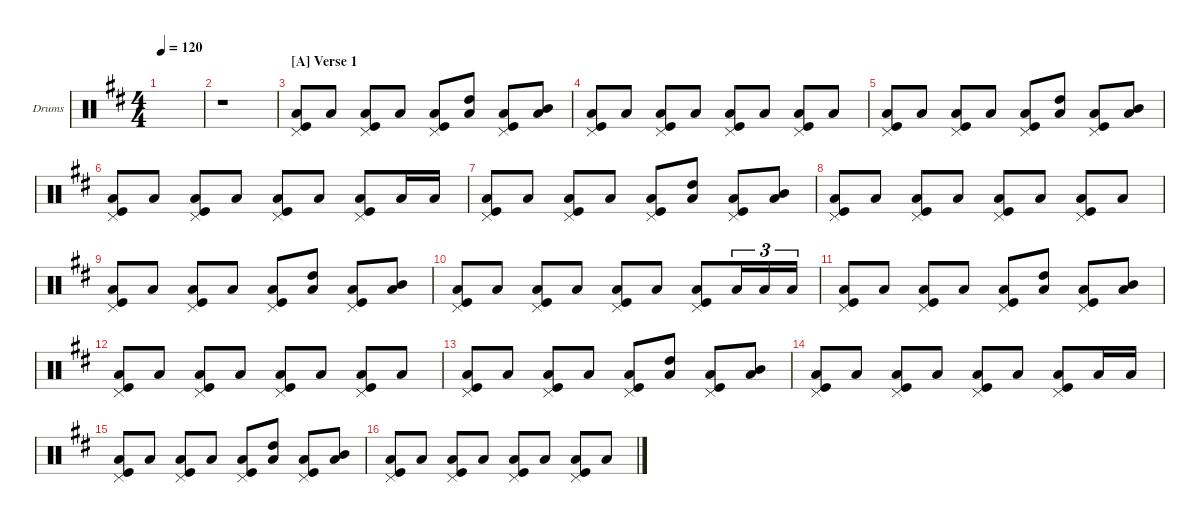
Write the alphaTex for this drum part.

\hideDynamics
\bracketExtendMode nobrackets
\firstSystemTrackNameOrientation horizontal
\otherSystemsTrackNameOrientation horizontal
\track ("Drums" "Drums") {instrument percussion}
\staff {score}
\articulation defaults
\ts (4 4)
\ac
\tempo 120
\clef neutral
\ks bminor
|
r.1 |
\section ("A" "Verse 1")
("Pedal Hi-Hat (hit)" "Kick (hit)" "Low Tom (hit)").8 "Low Tom (hit)".8 ("Pedal Hi-Hat (hit)" "Kick (hit)" "Low Tom (hit)").8 "Low Tom (hit)".8 ("Pedal Hi-Hat (hit)" "Kick (hit)" "Low Tom (hit)").8 ("Low Tom (hit)" "High Tom (hit)").8 ("Pedal Hi-Hat (hit)" "Kick (hit)" "Low Tom (hit)").8 ("Low Tom (hit)" "Mid Tom (hit)").8 |
("Pedal Hi-Hat (hit)" "Kick (hit)" "Low Tom (hit)").8 "Low Tom (hit)".8 ("Pedal Hi-Hat (hit)" "Kick (hit)" "Low Tom (hit)").8 "Low Tom (hit)".8 ("Pedal Hi-Hat (hit)" "Kick (hit)" "Low Tom (hit)").8 "Low Tom (hit)".8 ("Pedal Hi-Hat (hit)" "Kick (hit)" "Low Tom (hit)").8 "Low Tom (hit)".8 |
("Pedal Hi-Hat (hit)" "Kick (hit)" "Low Tom (hit)").8 "Low Tom (hit)".8 ("Pedal Hi-Hat (hit)" "Kick (hit)" "Low Tom (hit)").8 "Low Tom (hit)".8 ("Pedal Hi-Hat (hit)" "Kick (hit)" "Low Tom (hit)").8 ("Low Tom (hit)" "High Tom (hit)").8 ("Pedal Hi-Hat (hit)" "Kick (hit)" "Low Tom (hit)").8 ("Low Tom (hit)" "Mid Tom (hit)").8 |
("Kick (hit)" "Pedal Hi-Hat (hit)" "Low Tom (hit)").8 "Low Tom (hit)".8 ("Kick (hit)" "Pedal Hi-Hat (hit)" "Low Tom (hit)").8 "Low Tom (hit)".8 ("Kick (hit)" "Pedal Hi-Hat (hit)" "Low Tom (hit)").8 "Low Tom (hit)".8 ("Kick (hit)" "Pedal Hi-Hat (hit)" "Low Tom (hit)").8 "Low Tom (hit)".16 "Low Tom (hit)".16 |
("Pedal Hi-Hat (hit)" "Kick (hit)" "Low Tom (hit)").8 "Low Tom (hit)".8 ("Pedal Hi-Hat (hit)" "Kick (hit)" "Low Tom (hit)").8 "Low Tom (hit)".8 ("Pedal Hi-Hat (hit)" "Kick (hit)" "Low Tom (hit)").8 ("Low Tom (hit)" "High Tom (hit)").8 ("Pedal Hi-Hat (hit)" "Kick (hit)" "Low Tom (hit)").8 ("Low Tom (hit)" "Mid Tom (hit)").8 |
("Pedal Hi-Hat (hit)" "Kick (hit)" "Low Tom (hit)").8 "Low Tom (hit)".8 ("Pedal Hi-Hat (hit)" "Kick (hit)" "Low Tom (hit)").8 "Low Tom (hit)".8 ("Pedal Hi-Hat (hit)" "Kick (hit)" "Low Tom (hit)").8 "Low Tom (hit)".8 ("Pedal Hi-Hat (hit)" "Kick (hit)" "Low Tom (hit)").8 "Low Tom (hit)".8 |
("Pedal Hi-Hat (hit)" "Kick (hit)" "Low Tom (hit)").8 "Low Tom (hit)".8 ("Pedal Hi-Hat (hit)" "Kick (hit)" "Low Tom (hit)").8 "Low Tom (hit)".8 ("Pedal Hi-Hat (hit)" "Kick (hit)" "Low Tom (hit)").8 ("Low Tom (hit)" "High Tom (hit)").8 ("Pedal Hi-Hat (hit)" "Kick (hit)" "Low Tom (hit)").8 ("Low Tom (hit)" "Mid Tom (hit)").8 |
("Kick (hit)" "Pedal Hi-Hat (hit)" "Low Tom (hit)").8{dy f} "Low Tom (hit)".8 ("Kick (hit)" "Pedal Hi-Hat (hit)" "Low Tom (hit)").8 "Low Tom (hit)".8 ("Kick (hit)" "Pedal Hi-Hat (hit)" "Low Tom (hit)").8 "Low Tom (hit)".8 ("Kick (hit)" "Pedal Hi-Hat (hit)" "Low Tom (hit)").8{beam merge} "Low Tom (hit)".16{tu (3 2) beam merge} "Low Tom (hit)".16{tu (3 2) beam merge} "Low Tom (hit)".16{tu (3 2)} |
("Pedal Hi-Hat (hit)" "Kick (hit)" "Low Tom (hit)").8{dy mf} "Low Tom (hit)".8 ("Pedal Hi-Hat (hit)" "Kick (hit)" "Low Tom (hit)").8 "Low Tom (hit)".8 ("Pedal Hi-Hat (hit)" "Kick (hit)" "Low Tom (hit)").8 ("Low Tom (hit)" "High Tom (hit)").8 ("Pedal Hi-Hat (hit)" "Kick (hit)" "Low Tom (hit)").8 ("Low Tom (hit)" "Mid Tom (hit)").8 |
("Pedal Hi-Hat (hit)" "Kick (hit)" "Low Tom (hit)").8 "Low Tom (hit)".8 ("Pedal Hi-Hat (hit)" "Kick (hit)" "Low Tom (hit)").8 "Low Tom (hit)".8 ("Pedal Hi-Hat (hit)" "Kick (hit)" "Low Tom (hit)").8 "Low Tom (hit)".8 ("Pedal Hi-Hat (hit)" "Kick (hit)" "Low Tom (hit)").8 "Low Tom (hit)".8 |
("Pedal Hi-Hat (hit)" "Kick (hit)" "Low Tom (hit)").8 "Low Tom (hit)".8 ("Pedal Hi-Hat (hit)" "Kick (hit)" "Low Tom (hit)").8 "Low Tom (hit)".8 ("Pedal Hi-Hat (hit)" "Kick (hit)" "Low Tom (hit)").8 ("Low Tom (hit)" "High Tom (hit)").8 ("Pedal Hi-Hat (hit)" "Kick (hit)" "Low Tom (hit)").8 ("Low Tom (hit)" "Mid Tom (hit)").8 |
("Kick (hit)" "Pedal Hi-Hat (hit)" "Low Tom (hit)").8 "Low Tom (hit)".8 ("Kick (hit)" "Pedal Hi-Hat (hit)" "Low Tom (hit)").8 "Low Tom (hit)".8 ("Kick (hit)" "Pedal Hi-Hat (hit)" "Low Tom (hit)").8 "Low Tom (hit)".8 ("Kick (hit)" "Pedal Hi-Hat (hit)" "Low Tom (hit)").8 "Low Tom (hit)".16 "Low Tom (hit)".16 |
("Pedal Hi-Hat (hit)" "Kick (hit)" "Low Tom (hit)").8 "Low Tom (hit)".8 ("Pedal Hi-Hat (hit)" "Kick (hit)" "Low Tom (hit)").8 "Low Tom (hit)".8 ("Pedal Hi-Hat (hit)" "Kick (hit)" "Low Tom (hit)").8 ("Low Tom (hit)" "High Tom (hit)").8 ("Pedal Hi-Hat (hit)" "Kick (hit)" "Low Tom (hit)").8 ("Low Tom (hit)" "Mid Tom (hit)").8 |
("Pedal Hi-Hat (hit)" "Kick (hit)" "Low Tom (hit)").8 "Low Tom (hit)".8 ("Pedal Hi-Hat (hit)" "Kick (hit)" "Low Tom (hit)").8 "Low Tom (hit)".8 ("Pedal Hi-Hat (hit)" "Kick (hit)" "Low Tom (hit)").8 "Low Tom (hit)".8 ("Pedal Hi-Hat (hit)" "Kick (hit)" "Low Tom (hit)").8 "Low Tom (hit)".8
